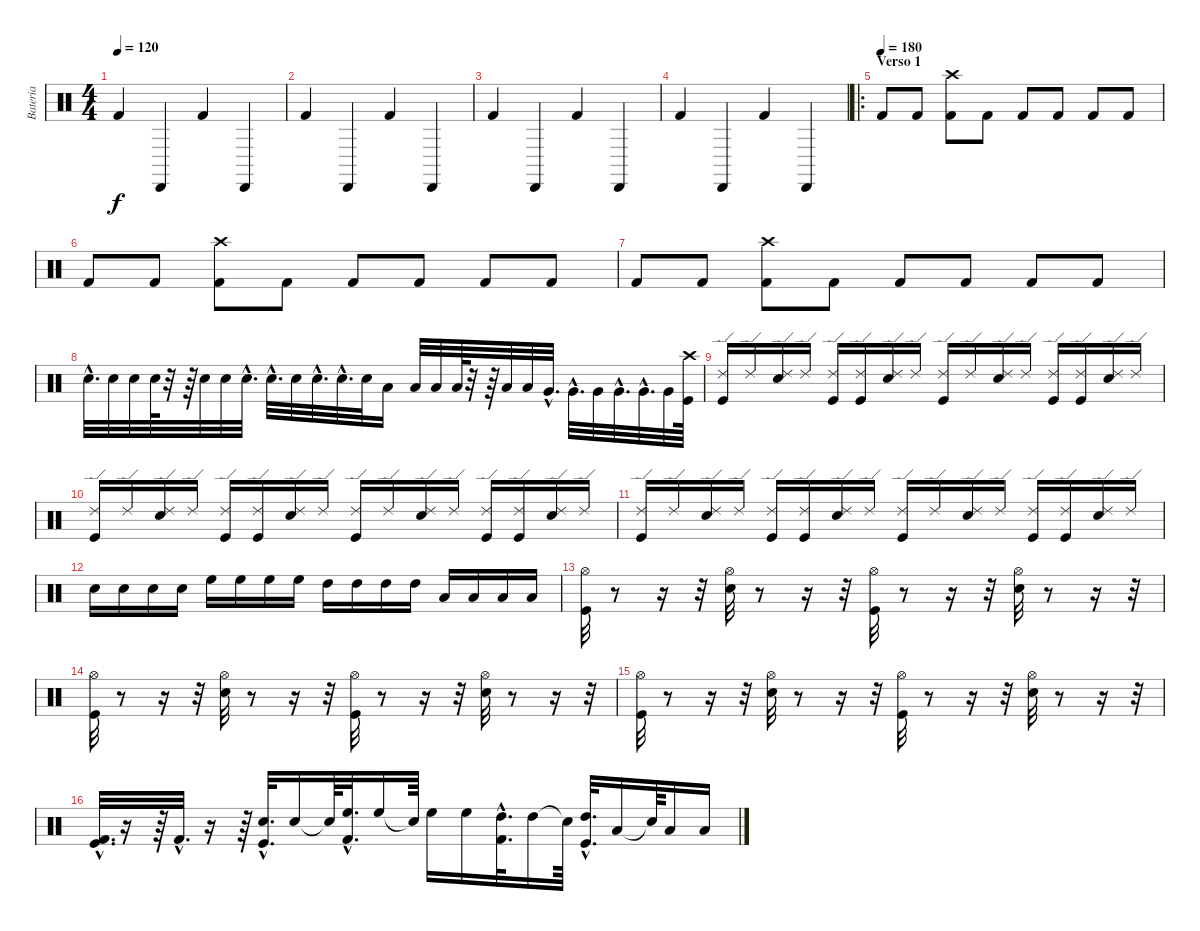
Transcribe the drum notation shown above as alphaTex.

\track ("Bateria" "Bateria") {instrument percussion}
\staff {score}
\articulation defaults
\ts (4 4)
\tempo 120
\clef neutral
\ks c "Kick (hit) 2".4{dy f} "Cabasa (hit)".4 "Kick (hit) 2".4 "Cabasa (hit)".4
|
"Kick (hit) 2".4 "Cabasa (hit)".4 "Kick (hit) 2".4 "Cabasa (hit)".4 |
"Kick (hit) 2".4 "Cabasa (hit)".4 "Kick (hit) 2".4 "Cabasa (hit)".4 |
"Kick (hit) 2".4 "Cabasa (hit)".4 "Kick (hit) 2".4 "Cabasa (hit)".4 |
\ro
\section ("" "Verso 1")
\tempo (180)
"Kick (hit) 2".8 "Kick (hit) 2".8 ("Crash high (hit)" "Kick (hit) 2").8 "Kick (hit) 2".8 "Kick (hit) 2".8 "Kick (hit) 2".8 "Kick (hit) 2".8 "Kick (hit) 2".8 |
"Kick (hit) 2".8 "Kick (hit) 2".8 ("Crash high (hit)" "Kick (hit) 2").8 "Kick (hit) 2".8 "Kick (hit) 2".8 "Kick (hit) 2".8 "Kick (hit) 2".8 "Kick (hit) 2".8 |
"Kick (hit) 2".8 "Kick (hit) 2".8 ("Crash high (hit)" "Kick (hit) 2").8 "Kick (hit) 2".8 "Kick (hit) 2".8 "Kick (hit) 2".8 "Kick (hit) 2".8 "Kick (hit) 2".8 |
"Snare (hit) 2"{hac}.32{d} "Snare (hit) 2".32 "Snare (hit) 2".32 "Snare (hit) 2".64 r.32 r.64 "Snare (hit) 2".32 "Snare (hit) 2".32 "Snare (hit) 2"{hac}.32{d} "Snare (hit) 2"{hac}.32{d} "Snare (hit) 2".32 "Snare (hit) 2"{hac}.32{d} "Snare (hit) 2"{hac}.32{d} "Snare (hit) 2".32 "Low Tom (hit)".16 "Low Tom (hit)".32 "Low Tom (hit)".32 "Low Tom (hit)".64 r.32 r.64 "Low Tom (hit)".32 "Low Tom (hit)".32 "Very Low Tom (hit)"{hac}.32{d} "Very Low Tom (hit)"{hac}.32{d} "Very Low Tom (hit)".32 "Very Low Tom (hit)"{hac}.32{d} "Very Low Tom (hit)"{hac}.32{d} "Very Low Tom (hit)".32 ("Crash high (hit)" "Kick (hit)").64 |
("Ride (edge) 2" "Kick (hit)").16 "Ride (edge) 2".16 ("Ride (edge) 2" "Snare (hit) 2").16 "Ride (edge) 2".16 ("Ride (edge) 2" "Kick (hit)").16 ("Ride (edge) 2" "Kick (hit)").16 ("Ride (edge) 2" "Snare (hit) 2").16 "Ride (edge) 2".16 ("Ride (edge) 2" "Kick (hit)").16 "Ride (edge) 2".16 ("Ride (edge) 2" "Snare (hit) 2").16 "Ride (edge) 2".16 ("Ride (edge) 2" "Kick (hit)").16 ("Ride (edge) 2" "Kick (hit)").16 ("Ride (edge) 2" "Snare (hit) 2").16 "Ride (edge) 2".16 |
("Ride (edge) 2" "Kick (hit)").16 "Ride (edge) 2".16 ("Ride (edge) 2" "Snare (hit) 2").16 "Ride (edge) 2".16 ("Ride (edge) 2" "Kick (hit)").16 ("Ride (edge) 2" "Kick (hit)").16 ("Ride (edge) 2" "Snare (hit) 2").16 "Ride (edge) 2".16 ("Ride (edge) 2" "Kick (hit)").16 "Ride (edge) 2".16 ("Ride (edge) 2" "Snare (hit) 2").16 "Ride (edge) 2".16 ("Ride (edge) 2" "Kick (hit)").16 ("Ride (edge) 2" "Kick (hit)").16 ("Ride (edge) 2" "Snare (hit) 2").16 "Ride (edge) 2".16 |
("Ride (edge) 2" "Kick (hit)").16 "Ride (edge) 2".16 ("Ride (edge) 2" "Snare (hit) 2").16 "Ride (edge) 2".16 ("Ride (edge) 2" "Kick (hit)").16 ("Ride (edge) 2" "Kick (hit)").16 ("Ride (edge) 2" "Snare (hit) 2").16 "Ride (edge) 2".16 ("Ride (edge) 2" "Kick (hit)").16 "Ride (edge) 2".16 ("Ride (edge) 2" "Snare (hit) 2").16 "Ride (edge) 2".16 ("Ride (edge) 2" "Kick (hit)").16 ("Ride (edge) 2" "Kick (hit)").16 ("Ride (edge) 2" "Snare (hit) 2").16 "Ride (edge) 2".16 |
"Snare (hit) 2".16 "Snare (hit) 2".16 "Snare (hit) 2".16 "Snare (hit) 2".16 "High Floor Tom (hit)".16 "High Floor Tom (hit)".16 "High Floor Tom (hit)".16 "High Floor Tom (hit)".16 "High Tom (hit)".16 "High Tom (hit)".16 "High Tom (hit)".16 "High Tom (hit)".16 "Low Tom (hit)".16 "Low Tom (hit)".16 "Low Tom (hit)".16 "Low Tom (hit)".16 |
("Hi-Hat (open)" "Kick (hit)").32 r.8 r.16 r.32 ("Snare (hit) 2" "Hi-Hat (open)").32 r.8 r.16 r.32 ("Hi-Hat (open)" "Kick (hit)").32 r.8 r.16 r.32 ("Snare (hit) 2" "Hi-Hat (open)").32 r.8 r.16 r.32 |
("Hi-Hat (open)" "Kick (hit)").32 r.8 r.16 r.32 ("Snare (hit) 2" "Hi-Hat (open)").32 r.8 r.16 r.32 ("Hi-Hat (open)" "Kick (hit)").32 r.8 r.16 r.32 ("Snare (hit) 2" "Hi-Hat (open)").32 r.8 r.16 r.32 |
("Hi-Hat (open)" "Kick (hit)").32 r.8 r.16 r.32 ("Snare (hit) 2" "Hi-Hat (open)").32 r.8 r.16 r.32 ("Hi-Hat (open)" "Kick (hit)").32 r.8 r.16 r.32 ("Snare (hit) 2" "Hi-Hat (open)").32 r.8 r.16 r.32 |
("Kick (hit)"{hac} "Kick (hit) 2"{hac}).32{d} r.16 r.64 "Kick (hit) 2"{hac}.32{d} r.16 r.64 ("Snare (hit) 2"{hac} "Kick (hit)"{hac}).32{d} "Snare (hit) 2".16 "Snare (hit)"{t}.64 ("High Floor Tom (hit)"{hac} "Kick (hit) 2"{hac}).32{d} "High Floor Tom (hit)".16 "Snare (hit)"{t}.64 "High Floor Tom (hit)".16 "High Floor Tom (hit)".16 ("High Tom (hit)"{hac} "Kick (hit) 2"{hac}).32{d} "High Tom (hit)".16 "Snare (hit)"{t}.64 ("Kick (hit)"{hac} "High Tom (hit)"{hac}).32{d} "Low Tom (hit)".16 "Snare (hit)"{t}.64 "Low Tom (hit)".16 "Low Floor Tom (hit)".16
